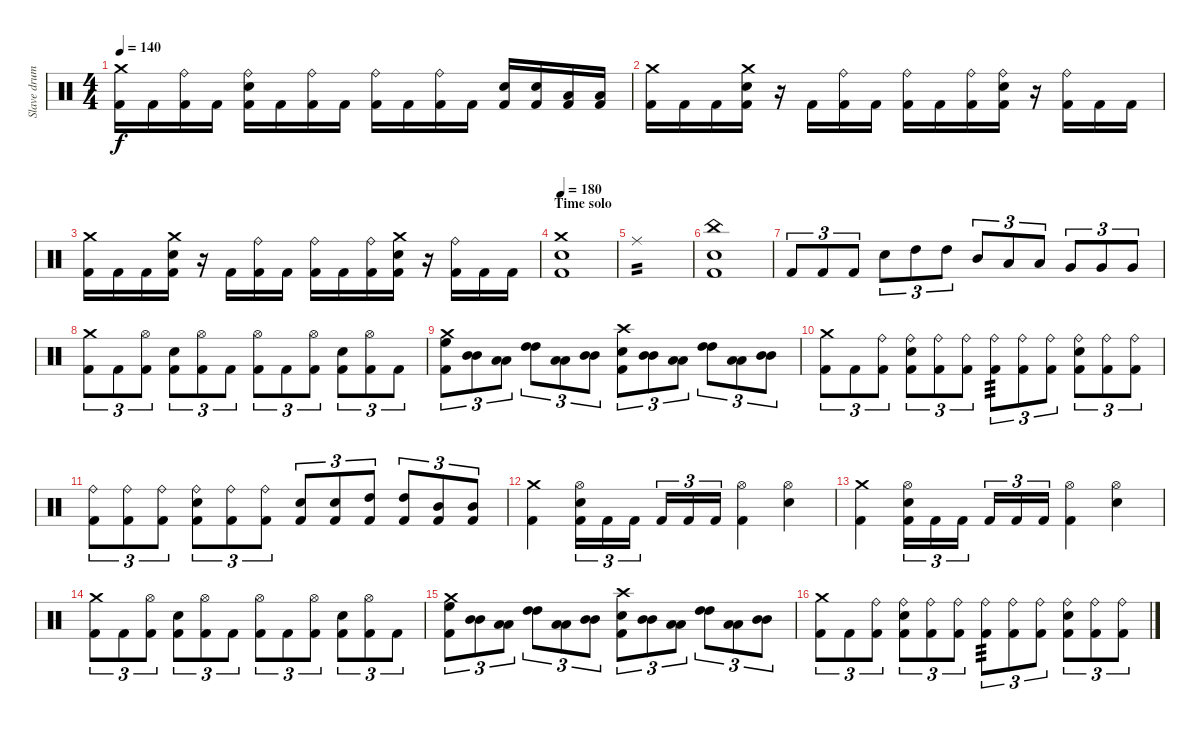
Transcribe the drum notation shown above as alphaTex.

\track ("Slave drum" "Slave drum") {instrument percussion}
\staff {score}
\articulation defaults
\ts (4 4)
\tempo 140
\clef neutral
\ks c
("Crash medium (hit)" "Kick (hit) 2").16{dy f} "Kick (hit) 2".16 ("Ride (bell)" "Kick (hit) 2").16 "Kick (hit) 2".16 ("Ride (bell)" "Electric Snare (hit)" "Kick (hit) 2").16 "Kick (hit) 2".16 ("Ride (bell)" "Kick (hit) 2").16 "Kick (hit) 2".16 ("Ride (bell)" "Kick (hit) 2").16 "Kick (hit) 2".16 ("Ride (bell)" "Kick (hit) 2").16 "Kick (hit) 2".16 ("Electric Snare (hit)" "Kick (hit) 2").16 ("Electric Snare (hit)" "Kick (hit) 2").16 ("Low Tom (hit)" "Kick (hit) 2").16 ("Low Tom (hit)" "Kick (hit) 2").16 |
("Crash medium (hit)" "Kick (hit) 2").16 "Kick (hit) 2".16 "Kick (hit) 2".16 ("Crash medium (hit)" "Electric Snare (hit)" "Kick (hit) 2").16 r.16 "Kick (hit) 2".16 ("Ride (bell)" "Kick (hit) 2").16 "Kick (hit) 2".16 ("Ride (bell)" "Kick (hit) 2").16 "Kick (hit) 2".16 ("Ride (bell)" "Kick (hit) 2").16 ("Ride (bell)" "Electric Snare (hit)" "Kick (hit) 2").16 r.16 ("Ride (bell)" "Kick (hit) 2").16 "Kick (hit) 2".16 "Kick (hit) 2".16 |
("Crash medium (hit)" "Kick (hit) 2").16 "Kick (hit) 2".16 "Kick (hit) 2".16 ("Crash medium (hit)" "Electric Snare (hit)" "Kick (hit) 2").16 r.16 "Kick (hit) 2".16 ("Ride (bell)" "Kick (hit) 2").16 "Kick (hit) 2".16 ("Ride (bell)" "Kick (hit) 2").16 "Kick (hit) 2".16 ("Ride (bell)" "Kick (hit) 2").16 ("Crash medium (hit)" "Electric Snare (hit)" "Kick (hit) 2").16 r.16 ("Ride (bell)" "Kick (hit) 2").16 "Kick (hit) 2".16 "Kick (hit) 2".16 |
\section ("" "Time solo")
\tempo 180
("Crash medium (hit)" "Electric Snare (hit)" "Kick (hit) 2").1 |
"Ride (middle)".1{tp 2} |
("China (hit)" "Electric Snare (hit)" "Kick (hit) 2").1 |
"Kick (hit) 2".8{tu (3 2)} "Kick (hit) 2".8{tu (3 2)} "Kick (hit) 2".8{tu (3 2)} "Electric Snare (hit)".8{tu (3 2)} "High Tom (hit)".8{tu (3 2)} "High Tom (hit)".8{tu (3 2)} "Mid Tom (hit)".8{tu (3 2)} "Low Tom (hit)".8{tu (3 2)} "Low Tom (hit)".8{tu (3 2)} "Very Low Tom (hit)".8{tu (3 2)} "Very Low Tom (hit)".8{tu (3 2)} "Very Low Tom (hit)".8{tu (3 2)} |
("Crash medium (hit)" "Kick (hit) 2").8{tu (3 2)} "Kick (hit) 2".8{tu (3 2)} ("Hi-Hat (open)" "Kick (hit) 2").8{tu (3 2)} ("Electric Snare (hit)" "Kick (hit) 2").8{tu (3 2)} ("Hi-Hat (open)" "Kick (hit) 2").8{tu (3 2)} "Kick (hit) 2".8{tu (3 2)} ("Hi-Hat (open)" "Kick (hit) 2").8{tu (3 2)} "Kick (hit) 2".8{tu (3 2)} ("Hi-Hat (open)" "Kick (hit) 2").8{tu (3 2)} ("Electric Snare (hit)" "Kick (hit) 2").8{tu (3 2)} ("Hi-Hat (open)" "Kick (hit) 2").8{tu (3 2)} "Kick (hit) 2".8{tu (3 2)} |
("Crash medium (hit)" "High Floor Tom (hit)" "Kick (hit) 2").8{tu (3 2)} ("Mid Tom (hit)" "Mid Tom (hit)").8{tu (3 2)} ("Low Tom (hit)" "Low Tom (hit)").8{tu (3 2)} ("High Tom (hit)" "High Tom (hit)").8{tu (3 2)} ("Low Tom (hit)" "Low Tom (hit)").8{tu (3 2)} ("Mid Tom (hit)" "Mid Tom (hit)").8{tu (3 2)} ("Crash high (hit)" "Electric Snare (hit)" "Kick (hit) 2").8{tu (3 2)} ("Mid Tom (hit)" "Mid Tom (hit)").8{tu (3 2)} ("Low Tom (hit)" "Low Tom (hit)").8{tu (3 2)} ("High Tom (hit)" "High Tom (hit)").8{tu (3 2)} ("Low Tom (hit)" "Low Tom (hit)").8{tu (3 2)} ("Mid Tom (hit)" "Mid Tom (hit)").8{tu (3 2)} |
("Crash medium (hit)" "Kick (hit) 2").8{tu (3 2)} "Kick (hit) 2".8{tu (3 2)} ("Ride (bell)" "Kick (hit) 2").8{tu (3 2)} ("Ride (bell)" "Electric Snare (hit)" "Kick (hit) 2").8{tu (3 2)} ("Ride (bell)" "Kick (hit) 2").8{tu (3 2)} ("Ride (bell)" "Kick (hit) 2").8{tu (3 2)} ("Ride (bell)" "Kick (hit) 2").8{tu (3 2) tp 3} ("Ride (bell)" "Kick (hit) 2").8{tu (3 2)} ("Ride (bell)" "Kick (hit) 2").8{tu (3 2)} ("Ride (bell)" "Electric Snare (hit)" "Kick (hit) 2").8{tu (3 2)} ("Ride (bell)" "Kick (hit) 2").8{tu (3 2)} ("Ride (bell)" "Kick (hit) 2").8{tu (3 2)} |
("Ride (bell)" "Kick (hit) 2").8{tu (3 2)} ("Ride (bell)" "Kick (hit) 2").8{tu (3 2)} ("Ride (bell)" "Kick (hit) 2").8{tu (3 2)} ("Ride (bell)" "Electric Snare (hit)" "Kick (hit) 2").8{tu (3 2)} ("Ride (bell)" "Kick (hit) 2").8{tu (3 2)} ("Ride (bell)" "Kick (hit) 2").8{tu (3 2)} ("Electric Snare (hit)" "Kick (hit) 2").8{tu (3 2)} ("Electric Snare (hit)" "Kick (hit) 2").8{tu (3 2)} ("High Tom (hit)" "Kick (hit) 2").8{tu (3 2)} ("High Tom (hit)" "Kick (hit) 2").8{tu (3 2)} ("Mid Tom (hit)" "Kick (hit) 2").8{tu (3 2)} ("Mid Tom (hit)" "Kick (hit) 2").8{tu (3 2)} |
("Crash medium (hit)" "Kick (hit) 2").4 ("Hi-Hat (open)" "Electric Snare (hit)" "Kick (hit) 2").16{tu (3 2)} "Kick (hit) 2".16{tu (3 2)} "Kick (hit) 2".16{tu (3 2)} "Kick (hit) 2".16{tu (3 2)} "Kick (hit) 2".16{tu (3 2)} "Kick (hit) 2".16{tu (3 2)} ("Hi-Hat (open)" "Kick (hit) 2").4 ("Hi-Hat (open)" "Electric Snare (hit)").4 |
("Crash medium (hit)" "Kick (hit) 2").4 ("Hi-Hat (open)" "Electric Snare (hit)" "Kick (hit) 2").16{tu (3 2)} "Kick (hit) 2".16{tu (3 2)} "Kick (hit) 2".16{tu (3 2)} "Kick (hit) 2".16{tu (3 2)} "Kick (hit) 2".16{tu (3 2)} "Kick (hit) 2".16{tu (3 2)} ("Hi-Hat (open)" "Kick (hit) 2").4 ("Hi-Hat (open)" "Electric Snare (hit)").4 |
("Crash medium (hit)" "Kick (hit) 2").8{tu (3 2)} "Kick (hit) 2".8{tu (3 2)} ("Hi-Hat (open)" "Kick (hit) 2").8{tu (3 2)} ("Electric Snare (hit)" "Kick (hit) 2").8{tu (3 2)} ("Hi-Hat (open)" "Kick (hit) 2").8{tu (3 2)} "Kick (hit) 2".8{tu (3 2)} ("Hi-Hat (open)" "Kick (hit) 2").8{tu (3 2)} "Kick (hit) 2".8{tu (3 2)} ("Hi-Hat (open)" "Kick (hit) 2").8{tu (3 2)} ("Electric Snare (hit)" "Kick (hit) 2").8{tu (3 2)} ("Hi-Hat (open)" "Kick (hit) 2").8{tu (3 2)} "Kick (hit) 2".8{tu (3 2)} |
("Crash medium (hit)" "High Floor Tom (hit)" "Kick (hit) 2").8{tu (3 2)} ("Mid Tom (hit)" "Mid Tom (hit)").8{tu (3 2)} ("Low Tom (hit)" "Low Tom (hit)").8{tu (3 2)} ("High Tom (hit)" "High Tom (hit)").8{tu (3 2)} ("Low Tom (hit)" "Low Tom (hit)").8{tu (3 2)} ("Mid Tom (hit)" "Mid Tom (hit)").8{tu (3 2)} ("Crash high (hit)" "Electric Snare (hit)" "Kick (hit) 2").8{tu (3 2)} ("Mid Tom (hit)" "Mid Tom (hit)").8{tu (3 2)} ("Low Tom (hit)" "Low Tom (hit)").8{tu (3 2)} ("High Tom (hit)" "High Tom (hit)").8{tu (3 2)} ("Low Tom (hit)" "Low Tom (hit)").8{tu (3 2)} ("Mid Tom (hit)" "Mid Tom (hit)").8{tu (3 2)} |
("Crash medium (hit)" "Kick (hit) 2").8{tu (3 2)} "Kick (hit) 2".8{tu (3 2)} ("Ride (bell)" "Kick (hit) 2").8{tu (3 2)} ("Ride (bell)" "Electric Snare (hit)" "Kick (hit) 2").8{tu (3 2)} ("Ride (bell)" "Kick (hit) 2").8{tu (3 2)} ("Ride (bell)" "Kick (hit) 2").8{tu (3 2)} ("Ride (bell)" "Kick (hit) 2").8{tu (3 2) tp 3} ("Ride (bell)" "Kick (hit) 2").8{tu (3 2)} ("Ride (bell)" "Kick (hit) 2").8{tu (3 2)} ("Ride (bell)" "Electric Snare (hit)" "Kick (hit) 2").8{tu (3 2)} ("Ride (bell)" "Kick (hit) 2").8{tu (3 2)} ("Ride (bell)" "Kick (hit) 2").8{tu (3 2)}
